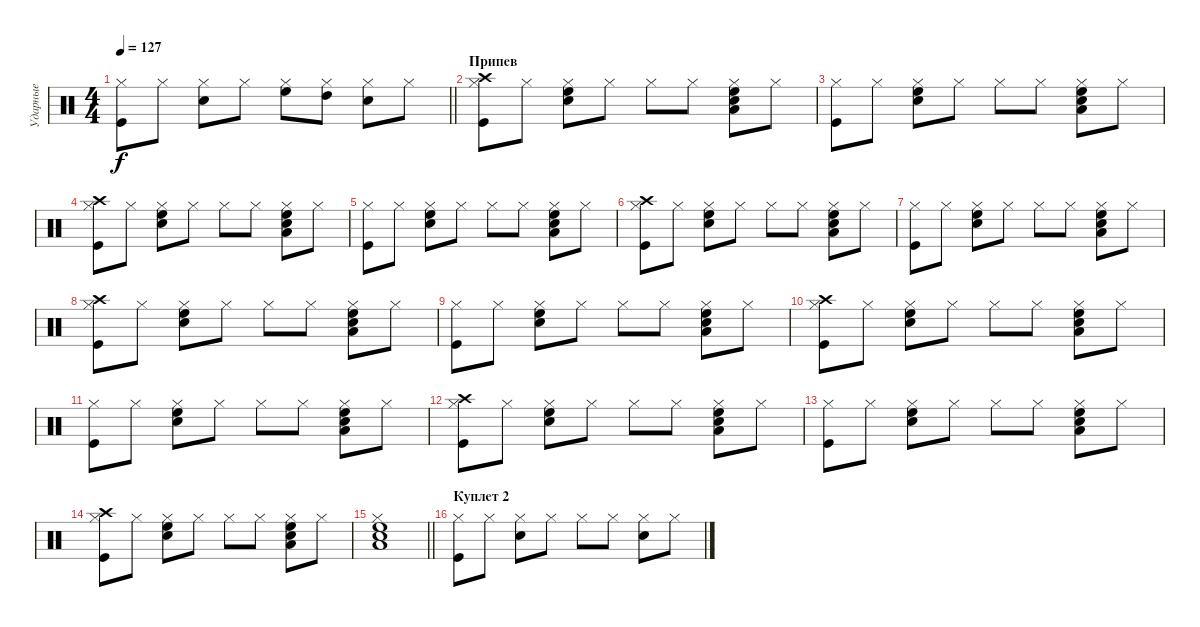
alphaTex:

\track ("Ударные" "Ударные") {instrument percussion}
\staff {score}
\articulation defaults
\ts (4 4)
\tempo 127
\clef neutral
\barLineRight lightlight
\ks c
("Hi-Hat (closed)" "Kick (hit)").8{dy f} "Hi-Hat (closed)".8 ("Hi-Hat (closed)" "Snare (hit) 2").8 "Hi-Hat (closed)".8 ("Hi-Hat (closed)" "High Floor Tom (hit)").8 ("Hi-Hat (closed)" "High Tom (hit)").8 ("Hi-Hat (closed)" "Snare (hit) 2").8 "Hi-Hat (closed)".8 |
\section ("" "Припев")
("Hi-Hat (closed)" "Crash high (hit)" "Kick (hit)").8 "Hi-Hat (closed)".8 ("Hi-Hat (closed)" "High Floor Tom (hit)" "Snare (hit) 2").8 "Hi-Hat (closed)".8 "Hi-Hat (closed)".8 "Hi-Hat (closed)".8 ("Hi-Hat (closed)" "High Floor Tom (hit)" "Snare (hit) 2" "Low Floor Tom (hit)").8 "Hi-Hat (closed)".8 |
("Hi-Hat (closed)" "Kick (hit)").8 "Hi-Hat (closed)".8 ("Hi-Hat (closed)" "High Floor Tom (hit)" "Snare (hit) 2").8 "Hi-Hat (closed)".8 "Hi-Hat (closed)".8 "Hi-Hat (closed)".8 ("Hi-Hat (closed)" "High Floor Tom (hit)" "Snare (hit) 2" "Low Floor Tom (hit)").8 "Hi-Hat (closed)".8 |
("Hi-Hat (closed)" "Crash high (hit)" "Kick (hit)").8 "Hi-Hat (closed)".8 ("Hi-Hat (closed)" "High Floor Tom (hit)" "Snare (hit) 2").8 "Hi-Hat (closed)".8 "Hi-Hat (closed)".8 "Hi-Hat (closed)".8 ("Hi-Hat (closed)" "High Floor Tom (hit)" "Snare (hit) 2" "Low Floor Tom (hit)").8 "Hi-Hat (closed)".8 |
("Hi-Hat (closed)" "Kick (hit)").8 "Hi-Hat (closed)".8 ("Hi-Hat (closed)" "High Floor Tom (hit)" "Snare (hit) 2").8 "Hi-Hat (closed)".8 "Hi-Hat (closed)".8 "Hi-Hat (closed)".8 ("Hi-Hat (closed)" "High Floor Tom (hit)" "Snare (hit) 2" "Low Floor Tom (hit)").8 "Hi-Hat (closed)".8 |
("Hi-Hat (closed)" "Crash high (hit)" "Kick (hit)").8 "Hi-Hat (closed)".8 ("Hi-Hat (closed)" "High Floor Tom (hit)" "Snare (hit) 2").8 "Hi-Hat (closed)".8 "Hi-Hat (closed)".8 "Hi-Hat (closed)".8 ("Hi-Hat (closed)" "High Floor Tom (hit)" "Snare (hit) 2" "Low Floor Tom (hit)").8 "Hi-Hat (closed)".8 |
("Hi-Hat (closed)" "Kick (hit)").8 "Hi-Hat (closed)".8 ("Hi-Hat (closed)" "High Floor Tom (hit)" "Snare (hit) 2").8 "Hi-Hat (closed)".8 "Hi-Hat (closed)".8 "Hi-Hat (closed)".8 ("Hi-Hat (closed)" "High Floor Tom (hit)" "Snare (hit) 2" "Low Floor Tom (hit)").8 "Hi-Hat (closed)".8 |
("Hi-Hat (closed)" "Crash high (hit)" "Kick (hit)").8 "Hi-Hat (closed)".8 ("Hi-Hat (closed)" "High Floor Tom (hit)" "Snare (hit) 2").8 "Hi-Hat (closed)".8 "Hi-Hat (closed)".8 "Hi-Hat (closed)".8 ("Hi-Hat (closed)" "High Floor Tom (hit)" "Snare (hit) 2" "Low Floor Tom (hit)").8 "Hi-Hat (closed)".8 |
("Hi-Hat (closed)" "Kick (hit)").8 "Hi-Hat (closed)".8 ("Hi-Hat (closed)" "High Floor Tom (hit)" "Snare (hit) 2").8 "Hi-Hat (closed)".8 "Hi-Hat (closed)".8 "Hi-Hat (closed)".8 ("Hi-Hat (closed)" "High Floor Tom (hit)" "Snare (hit) 2" "Low Floor Tom (hit)").8 "Hi-Hat (closed)".8 |
("Hi-Hat (closed)" "Crash high (hit)" "Kick (hit)").8 "Hi-Hat (closed)".8 ("Hi-Hat (closed)" "High Floor Tom (hit)" "Snare (hit) 2").8 "Hi-Hat (closed)".8 "Hi-Hat (closed)".8 "Hi-Hat (closed)".8 ("Hi-Hat (closed)" "High Floor Tom (hit)" "Snare (hit) 2" "Low Floor Tom (hit)").8 "Hi-Hat (closed)".8 |
("Hi-Hat (closed)" "Kick (hit)").8 "Hi-Hat (closed)".8 ("Hi-Hat (closed)" "High Floor Tom (hit)" "Snare (hit) 2").8 "Hi-Hat (closed)".8 "Hi-Hat (closed)".8 "Hi-Hat (closed)".8 ("Hi-Hat (closed)" "High Floor Tom (hit)" "Snare (hit) 2" "Low Floor Tom (hit)").8 "Hi-Hat (closed)".8 |
("Hi-Hat (closed)" "Crash high (hit)" "Kick (hit)").8 "Hi-Hat (closed)".8 ("Hi-Hat (closed)" "High Floor Tom (hit)" "Snare (hit) 2").8 "Hi-Hat (closed)".8 "Hi-Hat (closed)".8 "Hi-Hat (closed)".8 ("Hi-Hat (closed)" "High Floor Tom (hit)" "Snare (hit) 2" "Low Floor Tom (hit)").8 "Hi-Hat (closed)".8 |
("Hi-Hat (closed)" "Kick (hit)").8 "Hi-Hat (closed)".8 ("Hi-Hat (closed)" "High Floor Tom (hit)" "Snare (hit) 2").8 "Hi-Hat (closed)".8 "Hi-Hat (closed)".8 "Hi-Hat (closed)".8 ("Hi-Hat (closed)" "High Floor Tom (hit)" "Snare (hit) 2" "Low Floor Tom (hit)").8 "Hi-Hat (closed)".8 |
("Hi-Hat (closed)" "Crash high (hit)" "Kick (hit)").8 "Hi-Hat (closed)".8 ("Hi-Hat (closed)" "High Floor Tom (hit)" "Snare (hit) 2").8 "Hi-Hat (closed)".8 "Hi-Hat (closed)".8 "Hi-Hat (closed)".8 ("Hi-Hat (closed)" "High Floor Tom (hit)" "Snare (hit) 2" "Low Floor Tom (hit)").8 "Hi-Hat (closed)".8 |
\barLineRight lightlight
("Hi-Hat (closed)" "High Floor Tom (hit)" "Snare (hit) 2" "Low Floor Tom (hit)").1 |
\section ("" "Куплет 2")
("Hi-Hat (closed)" "Kick (hit)").8 "Hi-Hat (closed)".8 ("Hi-Hat (closed)" "Snare (hit) 2").8 "Hi-Hat (closed)".8 "Hi-Hat (closed)".8 "Hi-Hat (closed)".8 ("Hi-Hat (closed)" "Snare (hit) 2").8 "Hi-Hat (closed)".8
